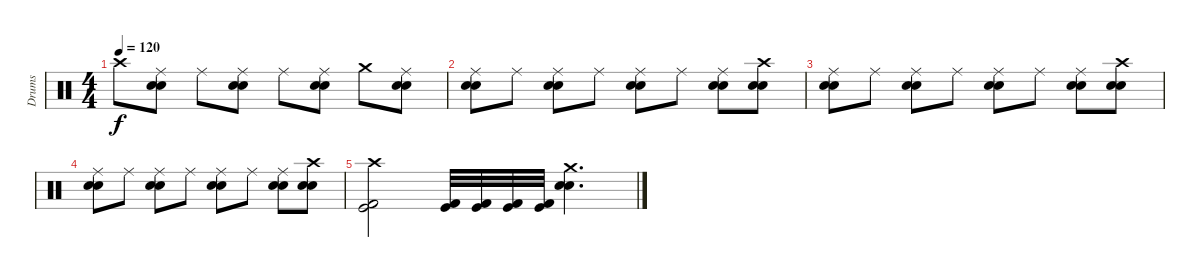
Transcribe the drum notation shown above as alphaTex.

\track ("Drums" "Drums") {instrument percussion}
\staff {score}
\articulation defaults
\ts (4 4)
\tempo 120
\clef neutral
\ks c "Crash high (hit)".8{dy f}
("Ride (middle)" "Electric Snare (hit)" "Snare (hit) 2").8 "Ride (middle)".8 ("Ride (middle)" "Electric Snare (hit)" "Snare (hit) 2").8 "Ride (middle)".8 ("Ride (middle)" "Electric Snare (hit)" "Snare (hit) 2").8 "Crash medium (hit)".8 ("Ride (middle)" "Electric Snare (hit)" "Snare (hit) 2").8 |
("Ride (middle)" "Electric Snare (hit)" "Snare (hit) 2").8 "Ride (middle)".8 ("Ride (middle)" "Electric Snare (hit)" "Snare (hit) 2").8 "Ride (middle)".8 ("Ride (middle)" "Electric Snare (hit)" "Snare (hit) 2").8 "Ride (middle)".8 ("Ride (middle)" "Electric Snare (hit)" "Snare (hit) 2").8 ("Crash high (hit)" "Electric Snare (hit)" "Snare (hit) 2").8 |
("Ride (middle)" "Electric Snare (hit)" "Snare (hit) 2").8 "Ride (middle)".8 ("Ride (middle)" "Electric Snare (hit)" "Snare (hit) 2").8 "Ride (middle)".8 ("Ride (middle)" "Electric Snare (hit)" "Snare (hit) 2").8 "Ride (middle)".8 ("Ride (middle)" "Electric Snare (hit)" "Snare (hit) 2").8 ("Crash high (hit)" "Electric Snare (hit)" "Snare (hit) 2").8 |
("Ride (middle)" "Electric Snare (hit)" "Snare (hit) 2").8 "Ride (middle)".8 ("Ride (middle)" "Electric Snare (hit)" "Snare (hit) 2").8 "Ride (middle)".8 ("Ride (middle)" "Electric Snare (hit)" "Snare (hit) 2").8 "Ride (middle)".8 ("Ride (middle)" "Electric Snare (hit)" "Snare (hit) 2").8 ("Crash high (hit)" "Electric Snare (hit)" "Snare (hit) 2").8 |
("Kick (hit) 2" "Kick (hit)" "Crash high (hit)").2 ("Kick (hit) 2" "Kick (hit)").32 ("Kick (hit) 2" "Kick (hit)").32 ("Kick (hit) 2" "Kick (hit)").32 ("Kick (hit) 2" "Kick (hit)").32 ("Electric Snare (hit)" "Snare (hit) 2" "Crash medium (hit)").4{d}
